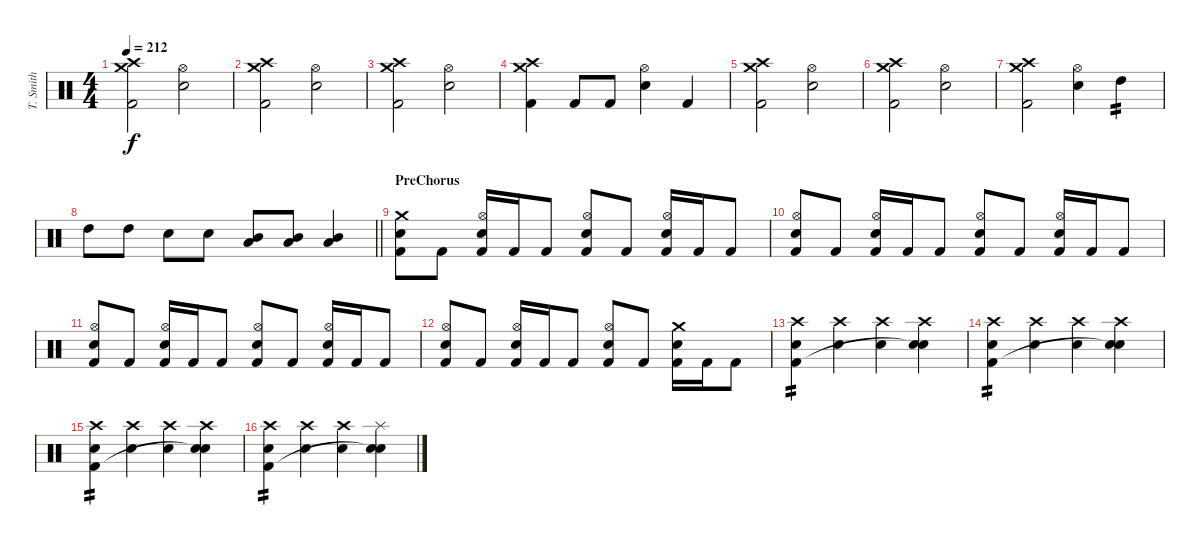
\track ("T. Smith" "T. Smith") {instrument percussion}
\staff {score}
\articulation defaults
\ts (4 4)
\tempo 212
\clef neutral
\ks c
("Crash medium (hit)" "Crash high (hit)" "Kick (hit) 2").2{dy f} ("Hi-Hat (open)" "Electric Snare (hit)").2 |
("Crash medium (hit)" "Crash high (hit)" "Kick (hit) 2").2 ("Hi-Hat (open)" "Electric Snare (hit)").2 |
("Crash medium (hit)" "Crash high (hit)" "Kick (hit) 2").2 ("Hi-Hat (open)" "Electric Snare (hit)").2 |
("Crash medium (hit)" "Crash high (hit)" "Kick (hit) 2").4 "Kick (hit) 2".8 "Kick (hit) 2".8 ("Hi-Hat (open)" "Electric Snare (hit)").4 "Kick (hit) 2".4 |
("Crash medium (hit)" "Crash high (hit)" "Kick (hit) 2").2 ("Hi-Hat (open)" "Electric Snare (hit)").2 |
("Crash medium (hit)" "Crash high (hit)" "Kick (hit) 2").2 ("Hi-Hat (open)" "Electric Snare (hit)").2 |
("Crash medium (hit)" "Crash high (hit)" "Kick (hit) 2").2 ("Hi-Hat (open)" "Electric Snare (hit)").4 "High Tom (hit)".4{tp 2} |
\barLineRight lightlight "High Tom (hit)".8 "High Tom (hit)".8 "Electric Snare (hit)".8 "Electric Snare (hit)".8
("Mid Tom (hit)" "Low Tom (hit)").8 ("Mid Tom (hit)" "Low Tom (hit)").8 ("Mid Tom (hit)" "Low Tom (hit)").4 |
\section ("" "PreChorus")
("Crash medium (hit)" "Electric Snare (hit)" "Kick (hit) 2").8 "Kick (hit) 2".8 ("Hi-Hat (open)" "Electric Snare (hit)" "Kick (hit) 2").16 "Kick (hit) 2".16 "Kick (hit) 2".8 ("Hi-Hat (open)" "Electric Snare (hit)" "Kick (hit) 2").8 "Kick (hit) 2".8 ("Hi-Hat (open)" "Electric Snare (hit)" "Kick (hit) 2").16 "Kick (hit) 2".16 "Kick (hit) 2".8 |
("Hi-Hat (open)" "Electric Snare (hit)" "Kick (hit) 2").8 "Kick (hit) 2".8 ("Hi-Hat (open)" "Electric Snare (hit)" "Kick (hit) 2").16 "Kick (hit) 2".16 "Kick (hit) 2".8 ("Hi-Hat (open)" "Electric Snare (hit)" "Kick (hit) 2").8 "Kick (hit) 2".8 ("Hi-Hat (open)" "Electric Snare (hit)" "Kick (hit) 2").16 "Kick (hit) 2".16 "Kick (hit) 2".8 |
("Hi-Hat (open)" "Electric Snare (hit)" "Kick (hit) 2").8 "Kick (hit) 2".8 ("Hi-Hat (open)" "Electric Snare (hit)" "Kick (hit) 2").16 "Kick (hit) 2".16 "Kick (hit) 2".8 ("Hi-Hat (open)" "Electric Snare (hit)" "Kick (hit) 2").8 "Kick (hit) 2".8 ("Hi-Hat (open)" "Electric Snare (hit)" "Kick (hit) 2").16 "Kick (hit) 2".16 "Kick (hit) 2".8 |
("Hi-Hat (open)" "Electric Snare (hit)" "Kick (hit) 2").8 "Kick (hit) 2".8 ("Hi-Hat (open)" "Electric Snare (hit)" "Kick (hit) 2").16 "Kick (hit) 2".16 "Kick (hit) 2".8 ("Hi-Hat (open)" "Electric Snare (hit)" "Kick (hit) 2").8 "Kick (hit) 2".8 ("Crash medium (hit)" "Electric Snare (hit)" "Kick (hit) 2").16 "Kick (hit) 2".16 "Kick (hit) 2".8 |
("Crash high (hit)" "Electric Snare (hit)" "Kick (hit) 2").4{tp 2} ("Crash high (hit)" "Electric Snare (hit)").4 ("Crash high (hit)" "Electric Snare (hit)").4 ("Crash high (hit)" "Electric Snare (hit)" "Snare (hit)"{t}).4 |
("Crash high (hit)" "Electric Snare (hit)" "Kick (hit) 2").4{tp 2} ("Crash high (hit)" "Electric Snare (hit)").4 ("Crash high (hit)" "Electric Snare (hit)").4 ("Crash high (hit)" "Electric Snare (hit)" "Snare (hit)"{t}).4 |
("Crash high (hit)" "Electric Snare (hit)" "Kick (hit) 2").4{tp 2} ("Crash high (hit)" "Electric Snare (hit)").4 ("Crash high (hit)" "Electric Snare (hit)").4 ("Crash high (hit)" "Electric Snare (hit)" "Snare (hit)"{t}).4 |
("Crash high (hit)" "Electric Snare (hit)" "Kick (hit) 2").4{tp 2} ("Crash high (hit)" "Electric Snare (hit)").4 ("Crash high (hit)" "Electric Snare (hit)").4 ("Splash (hit)" "Electric Snare (hit)" "Snare (hit)"{t}).4
